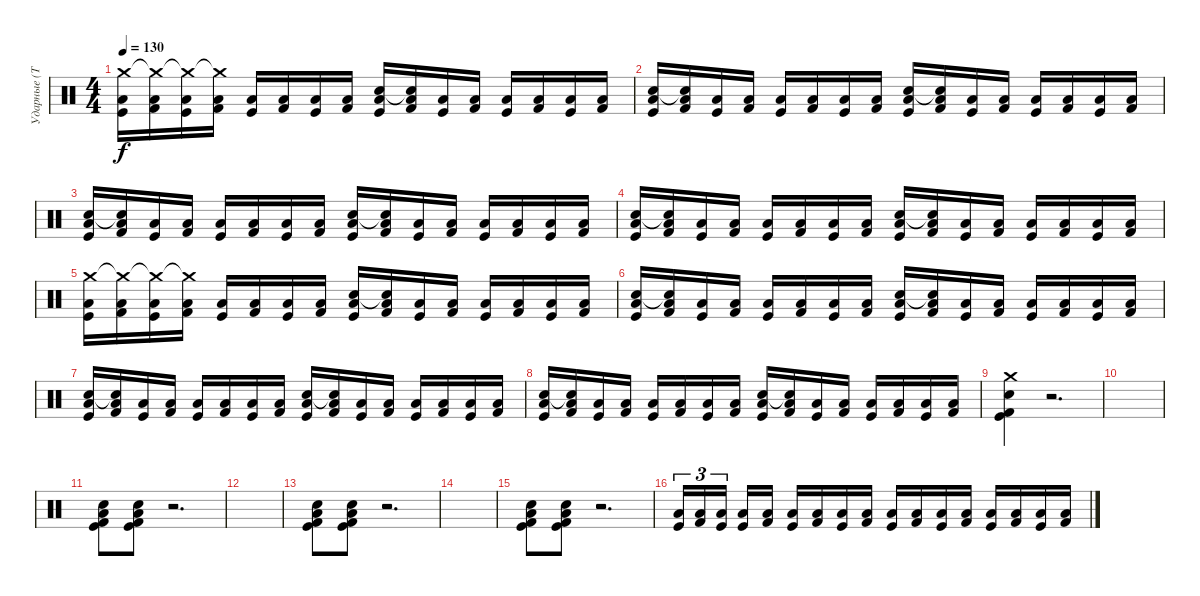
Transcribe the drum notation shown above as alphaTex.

\track ("Ударные (Тьодальв)" "Ударные (Т") {instrument percussion}
\staff {score}
\articulation defaults
\ts (4 4)
\tempo 130
\clef neutral
\ks c
("Crash medium (hit)" "Low Floor Tom (hit)" "Kick (hit)").16{dy f} ("Crash medium (hit)"{t} "Low Floor Tom (hit)" "Kick (hit) 2").16 ("Crash medium (hit)"{t} "Low Floor Tom (hit)" "Kick (hit)").16 ("Crash medium (hit)"{t} "Low Floor Tom (hit)" "Kick (hit) 2").16 ("Low Floor Tom (hit)" "Kick (hit)").16 ("Low Floor Tom (hit)" "Kick (hit) 2").16 ("Low Floor Tom (hit)" "Kick (hit)").16 ("Low Floor Tom (hit)" "Kick (hit) 2").16 ("Snare (hit) 2" "Low Floor Tom (hit)" "Kick (hit)").16 ("Snare (hit) 2"{t} "Low Floor Tom (hit)" "Kick (hit) 2").16 ("Low Floor Tom (hit)" "Kick (hit)").16 ("Low Floor Tom (hit)" "Kick (hit) 2").16 ("Low Floor Tom (hit)" "Kick (hit)").16 ("Low Floor Tom (hit)" "Kick (hit) 2").16 ("Low Floor Tom (hit)" "Kick (hit)").16 ("Low Floor Tom (hit)" "Kick (hit) 2").16 |
("Snare (hit) 2" "Low Floor Tom (hit)" "Kick (hit)").16 ("Snare (hit) 2"{t} "Low Floor Tom (hit)" "Kick (hit) 2").16 ("Low Floor Tom (hit)" "Kick (hit)").16 ("Low Floor Tom (hit)" "Kick (hit) 2").16 ("Low Floor Tom (hit)" "Kick (hit)").16 ("Low Floor Tom (hit)" "Kick (hit) 2").16 ("Low Floor Tom (hit)" "Kick (hit)").16 ("Low Floor Tom (hit)" "Kick (hit) 2").16 ("Snare (hit) 2" "Low Floor Tom (hit)" "Kick (hit)").16 ("Snare (hit) 2"{t} "Low Floor Tom (hit)" "Kick (hit) 2").16 ("Low Floor Tom (hit)" "Kick (hit)").16 ("Low Floor Tom (hit)" "Kick (hit) 2").16 ("Low Floor Tom (hit)" "Kick (hit)").16 ("Low Floor Tom (hit)" "Kick (hit) 2").16 ("Low Floor Tom (hit)" "Kick (hit)").16 ("Low Floor Tom (hit)" "Kick (hit) 2").16 |
("Snare (hit) 2" "Low Floor Tom (hit)" "Kick (hit)").16 ("Snare (hit) 2"{t} "Low Floor Tom (hit)" "Kick (hit) 2").16 ("Low Floor Tom (hit)" "Kick (hit)").16 ("Low Floor Tom (hit)" "Kick (hit) 2").16 ("Low Floor Tom (hit)" "Kick (hit)").16 ("Low Floor Tom (hit)" "Kick (hit) 2").16 ("Low Floor Tom (hit)" "Kick (hit)").16 ("Low Floor Tom (hit)" "Kick (hit) 2").16 ("Snare (hit) 2" "Low Floor Tom (hit)" "Kick (hit)").16 ("Snare (hit) 2"{t} "Low Floor Tom (hit)" "Kick (hit) 2").16 ("Low Floor Tom (hit)" "Kick (hit)").16 ("Low Floor Tom (hit)" "Kick (hit) 2").16 ("Low Floor Tom (hit)" "Kick (hit)").16 ("Low Floor Tom (hit)" "Kick (hit) 2").16 ("Low Floor Tom (hit)" "Kick (hit)").16 ("Low Floor Tom (hit)" "Kick (hit) 2").16 |
("Snare (hit) 2" "Low Floor Tom (hit)" "Kick (hit)").16 ("Snare (hit) 2"{t} "Low Floor Tom (hit)" "Kick (hit) 2").16 ("Low Floor Tom (hit)" "Kick (hit)").16 ("Low Floor Tom (hit)" "Kick (hit) 2").16 ("Low Floor Tom (hit)" "Kick (hit)").16 ("Low Floor Tom (hit)" "Kick (hit) 2").16 ("Low Floor Tom (hit)" "Kick (hit)").16 ("Low Floor Tom (hit)" "Kick (hit) 2").16 ("Snare (hit) 2" "Low Floor Tom (hit)" "Kick (hit)").16 ("Snare (hit) 2"{t} "Low Floor Tom (hit)" "Kick (hit) 2").16 ("Low Floor Tom (hit)" "Kick (hit)").16 ("Low Floor Tom (hit)" "Kick (hit) 2").16 ("Low Floor Tom (hit)" "Kick (hit)").16 ("Low Floor Tom (hit)" "Kick (hit) 2").16 ("Low Floor Tom (hit)" "Kick (hit)").16 ("Low Floor Tom (hit)" "Kick (hit) 2").16 |
("Crash medium (hit)" "Low Floor Tom (hit)" "Kick (hit)").16 ("Crash medium (hit)"{t} "Low Floor Tom (hit)" "Kick (hit) 2").16 ("Crash medium (hit)"{t} "Low Floor Tom (hit)" "Kick (hit)").16 ("Crash medium (hit)"{t} "Low Floor Tom (hit)" "Kick (hit) 2").16 ("Low Floor Tom (hit)" "Kick (hit)").16 ("Low Floor Tom (hit)" "Kick (hit) 2").16 ("Low Floor Tom (hit)" "Kick (hit)").16 ("Low Floor Tom (hit)" "Kick (hit) 2").16 ("Snare (hit) 2" "Low Floor Tom (hit)" "Kick (hit)").16 ("Snare (hit) 2"{t} "Low Floor Tom (hit)" "Kick (hit) 2").16 ("Low Floor Tom (hit)" "Kick (hit)").16 ("Low Floor Tom (hit)" "Kick (hit) 2").16 ("Low Floor Tom (hit)" "Kick (hit)").16 ("Low Floor Tom (hit)" "Kick (hit) 2").16 ("Low Floor Tom (hit)" "Kick (hit)").16 ("Low Floor Tom (hit)" "Kick (hit) 2").16 |
("Snare (hit) 2" "Low Floor Tom (hit)" "Kick (hit)").16 ("Snare (hit) 2"{t} "Low Floor Tom (hit)" "Kick (hit) 2").16 ("Low Floor Tom (hit)" "Kick (hit)").16 ("Low Floor Tom (hit)" "Kick (hit) 2").16 ("Low Floor Tom (hit)" "Kick (hit)").16 ("Low Floor Tom (hit)" "Kick (hit) 2").16 ("Low Floor Tom (hit)" "Kick (hit)").16 ("Low Floor Tom (hit)" "Kick (hit) 2").16 ("Snare (hit) 2" "Low Floor Tom (hit)" "Kick (hit)").16 ("Snare (hit) 2"{t} "Low Floor Tom (hit)" "Kick (hit) 2").16 ("Low Floor Tom (hit)" "Kick (hit)").16 ("Low Floor Tom (hit)" "Kick (hit) 2").16 ("Low Floor Tom (hit)" "Kick (hit)").16 ("Low Floor Tom (hit)" "Kick (hit) 2").16 ("Low Floor Tom (hit)" "Kick (hit)").16 ("Low Floor Tom (hit)" "Kick (hit) 2").16 |
("Snare (hit) 2" "Low Floor Tom (hit)" "Kick (hit)").16 ("Snare (hit) 2"{t} "Low Floor Tom (hit)" "Kick (hit) 2").16 ("Low Floor Tom (hit)" "Kick (hit)").16 ("Low Floor Tom (hit)" "Kick (hit) 2").16 ("Low Floor Tom (hit)" "Kick (hit)").16 ("Low Floor Tom (hit)" "Kick (hit) 2").16 ("Low Floor Tom (hit)" "Kick (hit)").16 ("Low Floor Tom (hit)" "Kick (hit) 2").16 ("Snare (hit) 2" "Low Floor Tom (hit)" "Kick (hit)").16 ("Snare (hit) 2"{t} "Low Floor Tom (hit)" "Kick (hit) 2").16 ("Low Floor Tom (hit)" "Kick (hit)").16 ("Low Floor Tom (hit)" "Kick (hit) 2").16 ("Low Floor Tom (hit)" "Kick (hit)").16 ("Low Floor Tom (hit)" "Kick (hit) 2").16 ("Low Floor Tom (hit)" "Kick (hit)").16 ("Low Floor Tom (hit)" "Kick (hit) 2").16 |
("Snare (hit) 2" "Low Floor Tom (hit)" "Kick (hit)").16 ("Snare (hit) 2"{t} "Low Floor Tom (hit)" "Kick (hit) 2").16 ("Low Floor Tom (hit)" "Kick (hit)").16 ("Low Floor Tom (hit)" "Kick (hit) 2").16 ("Low Floor Tom (hit)" "Kick (hit)").16 ("Low Floor Tom (hit)" "Kick (hit) 2").16 ("Low Floor Tom (hit)" "Kick (hit)").16 ("Low Floor Tom (hit)" "Kick (hit) 2").16 ("Snare (hit) 2" "Low Floor Tom (hit)" "Kick (hit)").16 ("Snare (hit) 2"{t} "Low Floor Tom (hit)" "Kick (hit) 2").16 ("Low Floor Tom (hit)" "Kick (hit)").16 ("Low Floor Tom (hit)" "Kick (hit) 2").16 ("Low Floor Tom (hit)" "Kick (hit)").16 ("Low Floor Tom (hit)" "Kick (hit) 2").16 ("Low Floor Tom (hit)" "Kick (hit)").16 ("Low Floor Tom (hit)" "Kick (hit) 2").16 |
("Crash medium (hit)" "Snare (hit) 2" "Kick (hit)" "Kick (hit) 2").4 r.2{d} |
|
("Low Floor Tom (hit)" "Snare (hit) 2" "Kick (hit)" "Kick (hit) 2").8 ("Low Floor Tom (hit)" "Snare (hit) 2" "Kick (hit)" "Kick (hit) 2").8 r.2{d} |
|
("Low Floor Tom (hit)" "Snare (hit) 2" "Kick (hit)" "Kick (hit) 2").8 ("Low Floor Tom (hit)" "Snare (hit) 2" "Kick (hit)" "Kick (hit) 2").8 r.2{d} |
|
("Low Floor Tom (hit)" "Snare (hit) 2" "Kick (hit)" "Kick (hit) 2").8 ("Low Floor Tom (hit)" "Snare (hit) 2" "Kick (hit)" "Kick (hit) 2").8 r.2{d} |
("Low Floor Tom (hit)" "Kick (hit)").16{tu (3 2)} ("Low Floor Tom (hit)" "Kick (hit) 2").16{tu (3 2)} ("Low Floor Tom (hit)" "Kick (hit)").16{tu (3 2) beam splitsecondary} ("Low Floor Tom (hit)" "Kick (hit)").16 ("Low Floor Tom (hit)" "Kick (hit) 2").16 ("Low Floor Tom (hit)" "Kick (hit)").16 ("Low Floor Tom (hit)" "Kick (hit) 2").16 ("Low Floor Tom (hit)" "Kick (hit)").16 ("Low Floor Tom (hit)" "Kick (hit) 2").16 ("Low Floor Tom (hit)" "Kick (hit)").16 ("Low Floor Tom (hit)" "Kick (hit) 2").16 ("Low Floor Tom (hit)" "Kick (hit)").16 ("Low Floor Tom (hit)" "Kick (hit) 2").16 ("Low Floor Tom (hit)" "Kick (hit)").16 ("Low Floor Tom (hit)" "Kick (hit) 2").16 ("Low Floor Tom (hit)" "Kick (hit)").16 ("Low Floor Tom (hit)" "Kick (hit) 2").16
